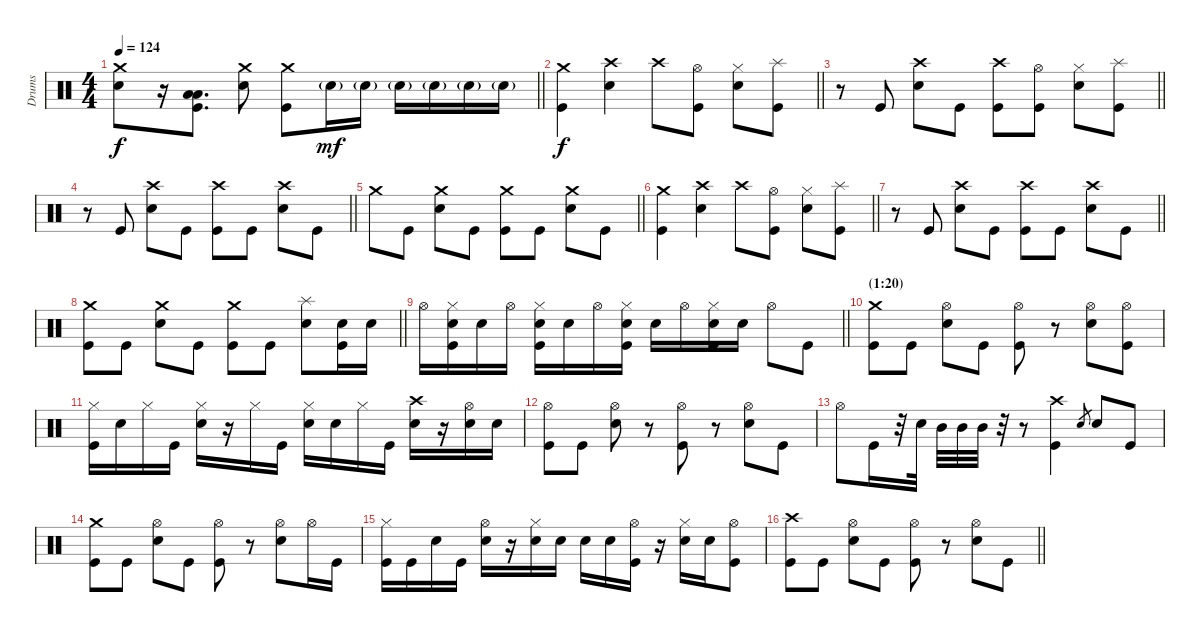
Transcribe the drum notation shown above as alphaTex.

\track ("Drums" "Drums") {instrument percussion}
\staff {score}
\articulation defaults
\ts (4 4)
\tempo 124
\clef neutral
\barLineRight lightlight
\ks c
("Crash medium (hit)" "Snare (hit) 2").8{dy f} r.16 ("Low Tom (hit)" "Low Tom (hit)" "Kick (hit)").8{d} ("Crash medium (hit)" "Snare (hit) 2").8 ("Crash medium (hit)" "Kick (hit)").8 "Snare (hit) 2"{g}.16{dy mf} "Snare (hit) 2"{g}.16 "Snare (hit) 2"{g}.16 "Snare (hit) 2"{g}.16 "Snare (hit) 2"{g}.16 "Snare (hit) 2"{g}.16 |
\barLineRight lightlight
("Crash medium (hit)" "Kick (hit)").4{dy f} ("Crash high (hit)" "Snare (hit) 2").4 "Crash high (hit)".8 ("Hi-Hat (open)" "Kick (hit)").8 ("Hi-Hat (closed)" "Snare (hit) 2").8 ("Splash (hit)" "Kick (hit)").8 |
\barLineRight lightlight
r.8 "Kick (hit)".8 ("Crash high (hit)" "Snare (hit) 2").8 "Kick (hit)".8 ("Crash high (hit)" "Kick (hit)").8 ("Hi-Hat (open)" "Kick (hit)").8 ("Hi-Hat (closed)" "Snare (hit) 2").8 ("Splash (hit)" "Kick (hit)").8 |
\barLineRight lightlight
r.8 "Kick (hit)".8 ("Crash high (hit)" "Snare (hit) 2").8 "Kick (hit)".8 ("Crash high (hit)" "Kick (hit)").8 "Kick (hit)".8 ("Crash high (hit)" "Snare (hit) 2").8 "Kick (hit)".8 |
\barLineRight lightlight "Crash medium (hit)".8 "Kick (hit)".8
("Crash medium (hit)" "Snare (hit) 2").8 "Kick (hit)".8 ("Crash medium (hit)" "Kick (hit)").8 "Kick (hit)".8 ("Crash medium (hit)" "Snare (hit) 2").8 "Kick (hit)".8 |
\barLineRight lightlight
("Crash medium (hit)" "Kick (hit)").4 ("Crash high (hit)" "Snare (hit) 2").4 "Crash high (hit)".8 ("Hi-Hat (open)" "Kick (hit)").8 ("Hi-Hat (closed)" "Snare (hit) 2").8 ("Splash (hit)" "Kick (hit)").8 |
\barLineRight lightlight
r.8 "Kick (hit)".8 ("Crash high (hit)" "Snare (hit) 2").8 "Kick (hit)".8 ("Crash high (hit)" "Kick (hit)").8 "Kick (hit)".8 ("Crash high (hit)" "Snare (hit) 2").8 "Kick (hit)".8 |
\barLineRight lightlight
("Crash medium (hit)" "Kick (hit)").8 "Kick (hit)".8 ("Crash medium (hit)" "Snare (hit) 2").8 "Kick (hit)".8 ("Crash medium (hit)" "Kick (hit)").8 "Kick (hit)".8 ("Splash (hit)" "Snare (hit) 2").8 ("Snare (hit) 2" "Kick (hit)").16 "Snare (hit) 2".16 |
\barLineRight lightlight "Hi-Hat (open)".16
("Hi-Hat (closed)" "Snare (hit) 2" "Kick (hit)").16 "Snare (hit) 2".16 "Hi-Hat (open)".16 ("Hi-Hat (closed)" "Snare (hit) 2" "Kick (hit)").16 "Snare (hit) 2".16 "Hi-Hat (open)".16 ("Hi-Hat (closed)" "Snare (hit) 2" "Kick (hit)").16 "Snare (hit) 2".16 "Hi-Hat (open)".16 ("Hi-Hat (closed)" "Snare (hit) 2" "Kick (hit)").16 "Snare (hit) 2".16 "Hi-Hat (open)".8 "Kick (hit)".8 |
\section ("" "(1:20)")
("Crash medium (hit)" "Kick (hit)").8 "Kick (hit)".8 ("Hi-Hat (open)" "Snare (hit) 2").8 "Kick (hit)".8 ("Hi-Hat (open)" "Kick (hit)").8 r.8 ("Hi-Hat (open)" "Snare (hit) 2").8 ("Hi-Hat (open)" "Kick (hit)").8 |
("Hi-Hat (closed)" "Kick (hit)").16 "Snare (hit) 2".16 "Hi-Hat (closed)".16 "Kick (hit)".16 ("Hi-Hat (closed)" "Snare (hit) 2").16 r.16 "Hi-Hat (closed)".16 "Kick (hit)".16 ("Hi-Hat (closed)" "Electric Snare (hit)").16 "Electric Snare (hit)".16 "Hi-Hat (closed)".16 "Kick (hit)".16 ("Crash high (hit)" "Snare (hit) 2").16 r.16 ("Hi-Hat (open)" "Snare (hit) 2").16 "Snare (hit) 2".16 |
("Hi-Hat (open)" "Kick (hit)").8 "Kick (hit)".8 ("Hi-Hat (open)" "Snare (hit) 2").8 r.8 ("Hi-Hat (open)" "Kick (hit)").8 r.8 ("Hi-Hat (open)" "Snare (hit) 2").8 "Kick (hit)".8 |
"Hi-Hat (open)".8 "Kick (hit)".16 r.32 "Snare (hit) 2".32 "Mid Tom (hit)".32 "Mid Tom (hit)".32 "Mid Tom (hit)".32 r.32 r.8 ("Crash high (hit)" "Kick (hit)").4 "Snare (hit) 2".8{gr} "Snare (hit) 2".8 "Kick (hit)".8 |
("Crash medium (hit)" "Kick (hit)").8 "Kick (hit)".8 ("Hi-Hat (open)" "Snare (hit) 2").8 "Kick (hit)".8 ("Hi-Hat (open)" "Kick (hit)").8 r.8 ("Hi-Hat (open)" "Snare (hit) 2").8 "Hi-Hat (open)".16 "Kick (hit)".16 |
("Hi-Hat (closed)" "Kick (hit)").16 "Kick (hit)".16 "Snare (hit) 2".16 "Kick (hit)".16 ("Hi-Hat (open)" "Snare (hit) 2").16 r.16 ("Hi-Hat (closed)" "Snare (hit) 2").16 "Snare (hit) 2".16 "Snare (hit) 2".16 "Snare (hit) 2".16 ("Hi-Hat (open)" "Kick (hit)").16 r.16 ("Hi-Hat (closed)" "Snare (hit) 2").16 "Snare (hit) 2".16 ("Hi-Hat (open)" "Kick (hit)").8 |
\barLineRight lightlight
("Crash high (hit)" "Kick (hit)").8 "Kick (hit)".8 ("Hi-Hat (open)" "Snare (hit) 2").8 "Kick (hit)".8 ("Hi-Hat (open)" "Kick (hit)").8 r.8 ("Hi-Hat (open)" "Snare (hit) 2").8 "Kick (hit)".8
